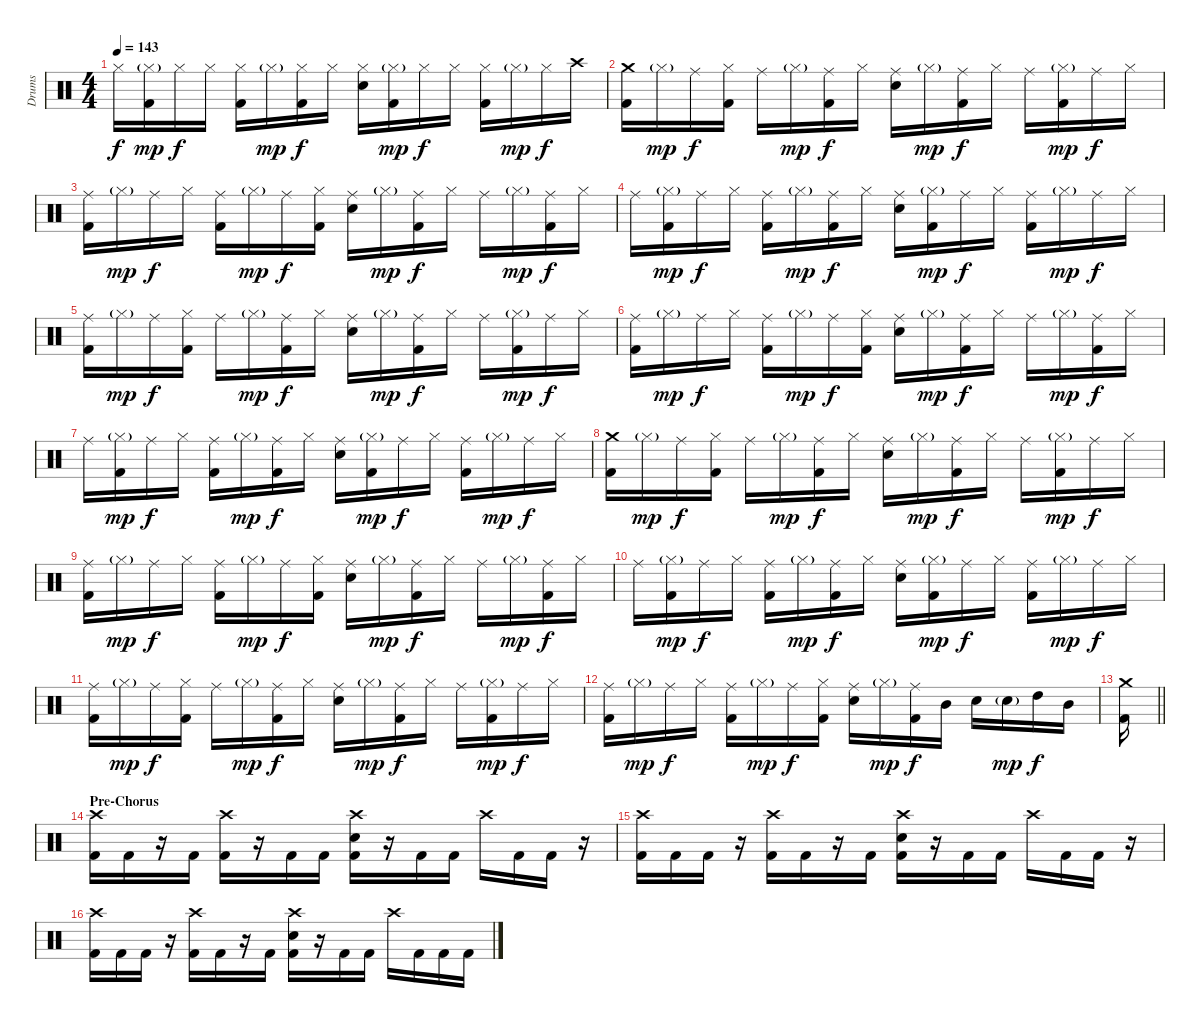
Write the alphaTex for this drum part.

\track ("Drums" "Drums") {instrument percussion}
\staff {score}
\articulation defaults
\ts (4 4)
\tempo 143
\clef neutral
\ks c "Hi-Hat (closed)".16{dy f}
("Hi-Hat (closed)"{g} "Kick (hit) 2").16{dy mp} "Hi-Hat (closed)".16{dy f} "Hi-Hat (closed)".16 ("Hi-Hat (closed)" "Kick (hit) 2").16 "Hi-Hat (closed)"{g}.16{dy mp} ("Hi-Hat (closed)" "Kick (hit) 2").16{dy f} "Hi-Hat (closed)".16 ("Electric Snare (hit)" "Hi-Hat (closed)").16 ("Hi-Hat (closed)"{g} "Kick (hit) 2").16{dy mp} "Hi-Hat (closed)".16{dy f} "Hi-Hat (closed)".16 ("Hi-Hat (closed)" "Kick (hit) 2").16 "Hi-Hat (closed)"{g}.16{dy mp} "Hi-Hat (closed)".16{dy f} "Crash high (hit)".16 |
("Crash medium (hit)" "Kick (hit) 2").16 "Hi-Hat (closed)"{g}.16{dy mp} "Ride (middle)".16{dy f} ("Hi-Hat (closed)" "Kick (hit) 2").16 "Ride (middle)".16 "Hi-Hat (closed)"{g}.16{dy mp} ("Ride (middle)" "Kick (hit) 2").16{dy f} "Hi-Hat (closed)".16 ("Electric Snare (hit)" "Ride (middle)").16 "Hi-Hat (closed)"{g}.16{dy mp} ("Ride (middle)" "Kick (hit) 2").16{dy f} "Hi-Hat (closed)".16 "Ride (middle)".16 ("Hi-Hat (closed)"{g} "Kick (hit) 2").16{dy mp} "Ride (middle)".16{dy f} "Hi-Hat (closed)".16 |
("Ride (middle)" "Kick (hit) 2").16 "Hi-Hat (closed)"{g}.16{dy mp} "Ride (middle)".16{dy f} "Hi-Hat (closed)".16 ("Ride (middle)" "Kick (hit) 2").16 "Hi-Hat (closed)"{g}.16{dy mp} "Ride (middle)".16{dy f} ("Hi-Hat (closed)" "Kick (hit) 2").16 ("Electric Snare (hit)" "Ride (middle)").16 "Hi-Hat (closed)"{g}.16{dy mp} ("Ride (middle)" "Kick (hit) 2").16{dy f} "Hi-Hat (closed)".16 "Ride (middle)".16 "Hi-Hat (closed)"{g}.16{dy mp} ("Ride (middle)" "Kick (hit) 2").16{dy f} "Hi-Hat (closed)".16 |
"Ride (middle)".16 ("Hi-Hat (closed)"{g} "Kick (hit) 2").16{dy mp} "Ride (middle)".16{dy f} "Hi-Hat (closed)".16 ("Ride (middle)" "Kick (hit) 2").16 "Hi-Hat (closed)"{g}.16{dy mp} ("Ride (middle)" "Kick (hit) 2").16{dy f} "Hi-Hat (closed)".16 ("Electric Snare (hit)" "Ride (middle)").16 ("Hi-Hat (closed)"{g} "Kick (hit) 2").16{dy mp} "Ride (middle)".16{dy f} "Hi-Hat (closed)".16 ("Ride (middle)" "Kick (hit) 2").16 "Hi-Hat (closed)"{g}.16{dy mp} "Ride (middle)".16{dy f} "Hi-Hat (closed)".16 |
("Ride (middle)" "Kick (hit) 2").16 "Hi-Hat (closed)"{g}.16{dy mp} "Ride (middle)".16{dy f} ("Hi-Hat (closed)" "Kick (hit) 2").16 "Ride (middle)".16 "Hi-Hat (closed)"{g}.16{dy mp} ("Ride (middle)" "Kick (hit) 2").16{dy f} "Hi-Hat (closed)".16 ("Electric Snare (hit)" "Ride (middle)").16 "Hi-Hat (closed)"{g}.16{dy mp} ("Ride (middle)" "Kick (hit) 2").16{dy f} "Hi-Hat (closed)".16 "Ride (middle)".16 ("Hi-Hat (closed)"{g} "Kick (hit) 2").16{dy mp} "Ride (middle)".16{dy f} "Hi-Hat (closed)".16 |
("Ride (middle)" "Kick (hit) 2").16 "Hi-Hat (closed)"{g}.16{dy mp} "Ride (middle)".16{dy f} "Hi-Hat (closed)".16 ("Ride (middle)" "Kick (hit) 2").16 "Hi-Hat (closed)"{g}.16{dy mp} "Ride (middle)".16{dy f} ("Hi-Hat (closed)" "Kick (hit) 2").16 ("Electric Snare (hit)" "Ride (middle)").16 "Hi-Hat (closed)"{g}.16{dy mp} ("Ride (middle)" "Kick (hit) 2").16{dy f} "Hi-Hat (closed)".16 "Ride (middle)".16 "Hi-Hat (closed)"{g}.16{dy mp} ("Ride (middle)" "Kick (hit) 2").16{dy f} "Hi-Hat (closed)".16 |
"Ride (middle)".16 ("Hi-Hat (closed)"{g} "Kick (hit) 2").16{dy mp} "Ride (middle)".16{dy f} "Hi-Hat (closed)".16 ("Ride (middle)" "Kick (hit) 2").16 "Hi-Hat (closed)"{g}.16{dy mp} ("Ride (middle)" "Kick (hit) 2").16{dy f} "Hi-Hat (closed)".16 ("Electric Snare (hit)" "Ride (middle)").16 ("Hi-Hat (closed)"{g} "Kick (hit) 2").16{dy mp} "Ride (middle)".16{dy f} "Hi-Hat (closed)".16 ("Ride (middle)" "Kick (hit) 2").16 "Hi-Hat (closed)"{g}.16{dy mp} "Ride (middle)".16{dy f} "Hi-Hat (closed)".16 |
("Crash medium (hit)" "Kick (hit) 2").16 "Hi-Hat (closed)"{g}.16{dy mp} "Ride (middle)".16{dy f} ("Hi-Hat (closed)" "Kick (hit) 2").16 "Ride (middle)".16 "Hi-Hat (closed)"{g}.16{dy mp} ("Ride (middle)" "Kick (hit) 2").16{dy f} "Hi-Hat (closed)".16 ("Electric Snare (hit)" "Ride (middle)").16 "Hi-Hat (closed)"{g}.16{dy mp} ("Ride (middle)" "Kick (hit) 2").16{dy f} "Hi-Hat (closed)".16 "Ride (middle)".16 ("Hi-Hat (closed)"{g} "Kick (hit) 2").16{dy mp} "Ride (middle)".16{dy f} "Hi-Hat (closed)".16 |
("Ride (middle)" "Kick (hit) 2").16 "Hi-Hat (closed)"{g}.16{dy mp} "Ride (middle)".16{dy f} "Hi-Hat (closed)".16 ("Ride (middle)" "Kick (hit) 2").16 "Hi-Hat (closed)"{g}.16{dy mp} "Ride (middle)".16{dy f} ("Hi-Hat (closed)" "Kick (hit) 2").16 ("Electric Snare (hit)" "Ride (middle)").16 "Hi-Hat (closed)"{g}.16{dy mp} ("Ride (middle)" "Kick (hit) 2").16{dy f} "Hi-Hat (closed)".16 "Ride (middle)".16 "Hi-Hat (closed)"{g}.16{dy mp} ("Ride (middle)" "Kick (hit) 2").16{dy f} "Hi-Hat (closed)".16 |
"Ride (middle)".16 ("Hi-Hat (closed)"{g} "Kick (hit) 2").16{dy mp} "Ride (middle)".16{dy f} "Hi-Hat (closed)".16 ("Ride (middle)" "Kick (hit) 2").16 "Hi-Hat (closed)"{g}.16{dy mp} ("Ride (middle)" "Kick (hit) 2").16{dy f} "Hi-Hat (closed)".16 ("Electric Snare (hit)" "Ride (middle)").16 ("Hi-Hat (closed)"{g} "Kick (hit) 2").16{dy mp} "Ride (middle)".16{dy f} "Hi-Hat (closed)".16 ("Ride (middle)" "Kick (hit) 2").16 "Hi-Hat (closed)"{g}.16{dy mp} "Ride (middle)".16{dy f} "Hi-Hat (closed)".16 |
("Ride (middle)" "Kick (hit) 2").16 "Hi-Hat (closed)"{g}.16{dy mp} "Ride (middle)".16{dy f} ("Hi-Hat (closed)" "Kick (hit) 2").16 "Ride (middle)".16 "Hi-Hat (closed)"{g}.16{dy mp} ("Ride (middle)" "Kick (hit) 2").16{dy f} "Hi-Hat (closed)".16 ("Electric Snare (hit)" "Ride (middle)").16 "Hi-Hat (closed)"{g}.16{dy mp} ("Ride (middle)" "Kick (hit) 2").16{dy f} "Hi-Hat (closed)".16 "Ride (middle)".16 ("Hi-Hat (closed)"{g} "Kick (hit) 2").16{dy mp} "Ride (middle)".16{dy f} "Hi-Hat (closed)".16 |
("Ride (middle)" "Kick (hit) 2").16 "Hi-Hat (closed)"{g}.16{dy mp} "Ride (middle)".16{dy f} "Hi-Hat (closed)".16 ("Ride (middle)" "Kick (hit) 2").16 "Hi-Hat (closed)"{g}.16{dy mp} "Ride (middle)".16{dy f} ("Hi-Hat (closed)" "Kick (hit) 2").16 ("Electric Snare (hit)" "Ride (middle)").16 "Hi-Hat (closed)"{g}.16{dy mp} ("Ride (middle)" "Kick (hit) 2").16{dy f} "Mid Tom (hit)".16 "Electric Snare (hit)".16 "Electric Snare (hit)"{g}.16{dy mp} "High Tom (hit)".16{dy f} "Mid Tom (hit)".16 |
\barLineRight lightlight
("Crash medium (hit)" "Kick (hit) 2").16 |
\section ("" "Pre-Chorus")
("Crash high (hit)" "Kick (hit) 2").16 "Kick (hit) 2".16 r.16 "Kick (hit) 2".16 ("Crash high (hit)" "Kick (hit) 2").16 r.16 "Kick (hit) 2".16 "Kick (hit) 2".16 ("Crash high (hit)" "Electric Snare (hit)" "Kick (hit) 2").16 r.16 "Kick (hit) 2".16 "Kick (hit) 2".16 "Crash high (hit)".16 "Kick (hit) 2".16 "Kick (hit) 2".16 r.16 |
("Crash high (hit)" "Kick (hit) 2").16 "Kick (hit) 2".16 "Kick (hit) 2".16 r.16 ("Crash high (hit)" "Kick (hit) 2").16 "Kick (hit) 2".16 r.16 "Kick (hit) 2".16 ("Crash high (hit)" "Electric Snare (hit)" "Kick (hit) 2").16 r.16 "Kick (hit) 2".16 "Kick (hit) 2".16 "Crash high (hit)".16 "Kick (hit) 2".16 "Kick (hit) 2".16 r.16 |
("Crash high (hit)" "Kick (hit) 2").16 "Kick (hit) 2".16 "Kick (hit) 2".16 r.16 ("Crash high (hit)" "Kick (hit) 2").16 "Kick (hit) 2".16 r.16 "Kick (hit) 2".16 ("Crash high (hit)" "Electric Snare (hit)" "Kick (hit) 2").16 r.16 "Kick (hit) 2".16 "Kick (hit) 2".16 "Crash high (hit)".16 "Kick (hit) 2".16 "Kick (hit) 2".16 "Kick (hit) 2".16
